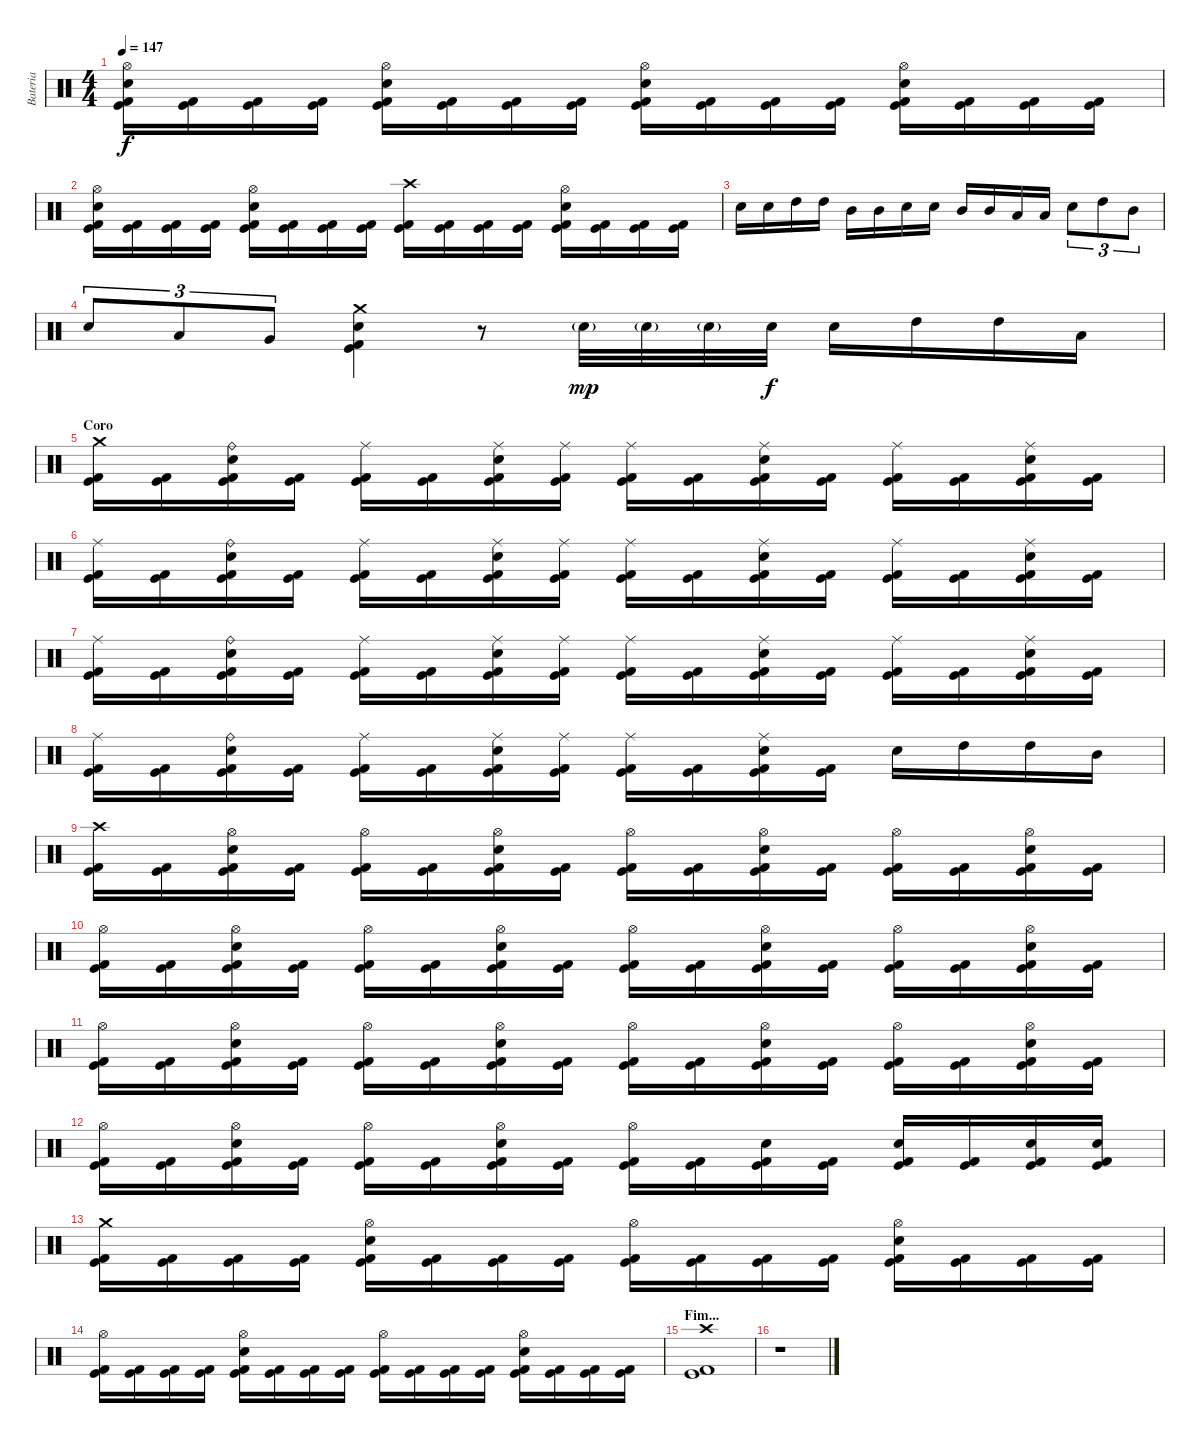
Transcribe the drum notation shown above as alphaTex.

\track ("Bateria" "Bateria") {instrument percussion}
\staff {score}
\articulation defaults
\ts (4 4)
\tempo 147
\clef neutral
\ks c
("Hi-Hat (open)" "Electric Snare (hit)" "Kick (hit)" "Kick (hit) 2").16{dy f} ("Kick (hit)" "Kick (hit) 2").16 ("Kick (hit)" "Kick (hit) 2").16 ("Kick (hit)" "Kick (hit) 2").16 ("Hi-Hat (open)" "Electric Snare (hit)" "Kick (hit)" "Kick (hit) 2").16 ("Kick (hit)" "Kick (hit) 2").16 ("Kick (hit)" "Kick (hit) 2").16 ("Kick (hit)" "Kick (hit) 2").16 ("Hi-Hat (open)" "Electric Snare (hit)" "Kick (hit)" "Kick (hit) 2").16 ("Kick (hit)" "Kick (hit) 2").16 ("Kick (hit)" "Kick (hit) 2").16 ("Kick (hit)" "Kick (hit) 2").16 ("Hi-Hat (open)" "Electric Snare (hit)" "Kick (hit)" "Kick (hit) 2").16 ("Kick (hit)" "Kick (hit) 2").16 ("Kick (hit)" "Kick (hit) 2").16 ("Kick (hit)" "Kick (hit) 2").16 |
("Hi-Hat (open)" "Electric Snare (hit)" "Kick (hit)" "Kick (hit) 2").16 ("Kick (hit)" "Kick (hit) 2").16 ("Kick (hit)" "Kick (hit) 2").16 ("Kick (hit)" "Kick (hit) 2").16 ("Hi-Hat (open)" "Electric Snare (hit)" "Kick (hit)" "Kick (hit) 2").16 ("Kick (hit)" "Kick (hit) 2").16 ("Kick (hit)" "Kick (hit) 2").16 ("Kick (hit)" "Kick (hit) 2").16 ("Crash high (hit)" "Kick (hit)" "Kick (hit) 2").16 ("Kick (hit)" "Kick (hit) 2").16 ("Kick (hit)" "Kick (hit) 2").16 ("Kick (hit)" "Kick (hit) 2").16 ("Hi-Hat (open)" "Electric Snare (hit)" "Kick (hit)" "Kick (hit) 2").16 ("Kick (hit)" "Kick (hit) 2").16 ("Kick (hit)" "Kick (hit) 2").16 ("Kick (hit)" "Kick (hit) 2").16 |
"Electric Snare (hit)".16 "Electric Snare (hit)".16 "High Tom (hit)".16 "High Tom (hit)".16 "Mid Tom (hit)".16 "Mid Tom (hit)".16 "Electric Snare (hit)".16 "Electric Snare (hit)".16 "Mid Tom (hit)".16 "Mid Tom (hit)".16 "Low Tom (hit)".16 "Low Tom (hit)".16 "Electric Snare (hit)".8{tu (3 2)} "High Tom (hit)".8{tu (3 2)} "Mid Tom (hit)".8{tu (3 2)} |
"Electric Snare (hit)".8{tu (3 2)} "Low Tom (hit)".8{tu (3 2)} "Very Low Tom (hit)".8{tu (3 2)} ("Crash medium (hit)" "Electric Snare (hit)" "Kick (hit)" "Kick (hit) 2").4 r.8 "Electric Snare (hit)"{g}.32{dy mp} "Electric Snare (hit)"{g}.32 "Electric Snare (hit)"{g}.32 "Electric Snare (hit)".32{dy f} "Electric Snare (hit)".16 "High Tom (hit)".16 "High Tom (hit)".16 "Low Tom (hit)".16 |
\section ("" "Coro")
("Crash medium (hit)" "Kick (hit)" "Kick (hit) 2").16 ("Kick (hit)" "Kick (hit) 2").16 ("Ride (bell)" "Electric Snare (hit)" "Kick (hit)" "Kick (hit) 2").16 ("Kick (hit)" "Kick (hit) 2").16 ("Ride (middle)" "Kick (hit)" "Kick (hit) 2").16 ("Kick (hit)" "Kick (hit) 2").16 ("Ride (middle)" "Electric Snare (hit)" "Kick (hit)" "Kick (hit) 2").16 ("Ride (middle)" "Kick (hit)" "Kick (hit) 2").16 ("Ride (middle)" "Kick (hit)" "Kick (hit) 2").16 ("Kick (hit)" "Kick (hit) 2").16 ("Ride (middle)" "Electric Snare (hit)" "Kick (hit)" "Kick (hit) 2").16 ("Kick (hit)" "Kick (hit) 2").16 ("Ride (middle)" "Kick (hit)" "Kick (hit) 2").16 ("Kick (hit)" "Kick (hit) 2").16 ("Ride (middle)" "Electric Snare (hit)" "Kick (hit)" "Kick (hit) 2").16 ("Kick (hit)" "Kick (hit) 2").16 |
("Ride (middle)" "Kick (hit)" "Kick (hit) 2").16 ("Kick (hit)" "Kick (hit) 2").16 ("Ride (bell)" "Electric Snare (hit)" "Kick (hit)" "Kick (hit) 2").16 ("Kick (hit)" "Kick (hit) 2").16 ("Ride (middle)" "Kick (hit)" "Kick (hit) 2").16 ("Kick (hit)" "Kick (hit) 2").16 ("Ride (middle)" "Electric Snare (hit)" "Kick (hit)" "Kick (hit) 2").16 ("Ride (middle)" "Kick (hit)" "Kick (hit) 2").16 ("Ride (middle)" "Kick (hit)" "Kick (hit) 2").16 ("Kick (hit)" "Kick (hit) 2").16 ("Ride (middle)" "Electric Snare (hit)" "Kick (hit)" "Kick (hit) 2").16 ("Kick (hit)" "Kick (hit) 2").16 ("Ride (middle)" "Kick (hit)" "Kick (hit) 2").16 ("Kick (hit)" "Kick (hit) 2").16 ("Ride (middle)" "Electric Snare (hit)" "Kick (hit)" "Kick (hit) 2").16 ("Kick (hit)" "Kick (hit) 2").16 |
("Ride (middle)" "Kick (hit)" "Kick (hit) 2").16 ("Kick (hit)" "Kick (hit) 2").16 ("Ride (bell)" "Electric Snare (hit)" "Kick (hit)" "Kick (hit) 2").16 ("Kick (hit)" "Kick (hit) 2").16 ("Ride (middle)" "Kick (hit)" "Kick (hit) 2").16 ("Kick (hit)" "Kick (hit) 2").16 ("Ride (middle)" "Electric Snare (hit)" "Kick (hit)" "Kick (hit) 2").16 ("Ride (middle)" "Kick (hit)" "Kick (hit) 2").16 ("Ride (middle)" "Kick (hit)" "Kick (hit) 2").16 ("Kick (hit)" "Kick (hit) 2").16 ("Ride (middle)" "Electric Snare (hit)" "Kick (hit)" "Kick (hit) 2").16 ("Kick (hit)" "Kick (hit) 2").16 ("Ride (middle)" "Kick (hit)" "Kick (hit) 2").16 ("Kick (hit)" "Kick (hit) 2").16 ("Ride (middle)" "Electric Snare (hit)" "Kick (hit)" "Kick (hit) 2").16 ("Kick (hit)" "Kick (hit) 2").16 |
("Ride (middle)" "Kick (hit)" "Kick (hit) 2").16 ("Kick (hit)" "Kick (hit) 2").16 ("Ride (bell)" "Electric Snare (hit)" "Kick (hit)" "Kick (hit) 2").16 ("Kick (hit)" "Kick (hit) 2").16 ("Ride (middle)" "Kick (hit)" "Kick (hit) 2").16 ("Kick (hit)" "Kick (hit) 2").16 ("Ride (middle)" "Electric Snare (hit)" "Kick (hit)" "Kick (hit) 2").16 ("Ride (middle)" "Kick (hit)" "Kick (hit) 2").16 ("Ride (middle)" "Kick (hit)" "Kick (hit) 2").16 ("Kick (hit)" "Kick (hit) 2").16 ("Ride (middle)" "Electric Snare (hit)" "Kick (hit)" "Kick (hit) 2").16 ("Kick (hit)" "Kick (hit) 2").16 "Electric Snare (hit)".16 "High Tom (hit)".16 "High Tom (hit)".16 "Mid Tom (hit)".16 |
("Crash high (hit)" "Kick (hit)" "Kick (hit) 2").16 ("Kick (hit)" "Kick (hit) 2").16 ("Hi-Hat (open)" "Electric Snare (hit)" "Kick (hit)" "Kick (hit) 2").16 ("Kick (hit)" "Kick (hit) 2").16 ("Hi-Hat (open)" "Kick (hit)" "Kick (hit) 2").16 ("Kick (hit)" "Kick (hit) 2").16 ("Hi-Hat (open)" "Electric Snare (hit)" "Kick (hit)" "Kick (hit) 2").16 ("Kick (hit)" "Kick (hit) 2").16 ("Hi-Hat (open)" "Kick (hit)" "Kick (hit) 2").16 ("Kick (hit)" "Kick (hit) 2").16 ("Hi-Hat (open)" "Electric Snare (hit)" "Kick (hit)" "Kick (hit) 2").16 ("Kick (hit)" "Kick (hit) 2").16 ("Hi-Hat (open)" "Kick (hit)" "Kick (hit) 2").16 ("Kick (hit)" "Kick (hit) 2").16 ("Hi-Hat (open)" "Electric Snare (hit)" "Kick (hit)" "Kick (hit) 2").16 ("Kick (hit)" "Kick (hit) 2").16 |
("Hi-Hat (open)" "Kick (hit)" "Kick (hit) 2").16 ("Kick (hit)" "Kick (hit) 2").16 ("Hi-Hat (open)" "Electric Snare (hit)" "Kick (hit)" "Kick (hit) 2").16 ("Kick (hit)" "Kick (hit) 2").16 ("Hi-Hat (open)" "Kick (hit)" "Kick (hit) 2").16 ("Kick (hit)" "Kick (hit) 2").16 ("Hi-Hat (open)" "Electric Snare (hit)" "Kick (hit)" "Kick (hit) 2").16 ("Kick (hit)" "Kick (hit) 2").16 ("Hi-Hat (open)" "Kick (hit)" "Kick (hit) 2").16 ("Kick (hit)" "Kick (hit) 2").16 ("Hi-Hat (open)" "Electric Snare (hit)" "Kick (hit)" "Kick (hit) 2").16 ("Kick (hit)" "Kick (hit) 2").16 ("Hi-Hat (open)" "Kick (hit)" "Kick (hit) 2").16 ("Kick (hit)" "Kick (hit) 2").16 ("Hi-Hat (open)" "Electric Snare (hit)" "Kick (hit)" "Kick (hit) 2").16 ("Kick (hit)" "Kick (hit) 2").16 |
("Hi-Hat (open)" "Kick (hit)" "Kick (hit) 2").16 ("Kick (hit)" "Kick (hit) 2").16 ("Hi-Hat (open)" "Electric Snare (hit)" "Kick (hit)" "Kick (hit) 2").16 ("Kick (hit)" "Kick (hit) 2").16 ("Hi-Hat (open)" "Kick (hit)" "Kick (hit) 2").16 ("Kick (hit)" "Kick (hit) 2").16 ("Hi-Hat (open)" "Electric Snare (hit)" "Kick (hit)" "Kick (hit) 2").16 ("Kick (hit)" "Kick (hit) 2").16 ("Hi-Hat (open)" "Kick (hit)" "Kick (hit) 2").16 ("Kick (hit)" "Kick (hit) 2").16 ("Hi-Hat (open)" "Electric Snare (hit)" "Kick (hit)" "Kick (hit) 2").16 ("Kick (hit)" "Kick (hit) 2").16 ("Hi-Hat (open)" "Kick (hit)" "Kick (hit) 2").16 ("Kick (hit)" "Kick (hit) 2").16 ("Hi-Hat (open)" "Electric Snare (hit)" "Kick (hit)" "Kick (hit) 2").16 ("Kick (hit)" "Kick (hit) 2").16 |
("Hi-Hat (open)" "Kick (hit)" "Kick (hit) 2").16 ("Kick (hit)" "Kick (hit) 2").16 ("Hi-Hat (open)" "Electric Snare (hit)" "Kick (hit)" "Kick (hit) 2").16 ("Kick (hit)" "Kick (hit) 2").16 ("Hi-Hat (open)" "Kick (hit)" "Kick (hit) 2").16 ("Kick (hit)" "Kick (hit) 2").16 ("Hi-Hat (open)" "Electric Snare (hit)" "Kick (hit)" "Kick (hit) 2").16 ("Kick (hit)" "Kick (hit) 2").16 ("Hi-Hat (open)" "Kick (hit)" "Kick (hit) 2").16 ("Kick (hit)" "Kick (hit) 2").16 ("Electric Snare (hit)" "Kick (hit)" "Kick (hit) 2").16 ("Kick (hit)" "Kick (hit) 2").16 ("Electric Snare (hit)" "Kick (hit)" "Kick (hit) 2").16 ("Kick (hit)" "Kick (hit) 2").16 ("Electric Snare (hit)" "Kick (hit)" "Kick (hit) 2").16 ("Electric Snare (hit)" "Kick (hit)" "Kick (hit) 2").16 |
("Crash medium (hit)" "Kick (hit)" "Kick (hit) 2").16 ("Kick (hit)" "Kick (hit) 2").16 ("Kick (hit)" "Kick (hit) 2").16 ("Kick (hit)" "Kick (hit) 2").16 ("Hi-Hat (open)" "Electric Snare (hit)" "Kick (hit)" "Kick (hit) 2").16 ("Kick (hit)" "Kick (hit) 2").16 ("Kick (hit)" "Kick (hit) 2").16 ("Kick (hit)" "Kick (hit) 2").16 ("Hi-Hat (open)" "Kick (hit)" "Kick (hit) 2").16 ("Kick (hit)" "Kick (hit) 2").16 ("Kick (hit)" "Kick (hit) 2").16 ("Kick (hit)" "Kick (hit) 2").16 ("Hi-Hat (open)" "Electric Snare (hit)" "Kick (hit)" "Kick (hit) 2").16 ("Kick (hit)" "Kick (hit) 2").16 ("Kick (hit)" "Kick (hit) 2").16 ("Kick (hit)" "Kick (hit) 2").16 |
("Hi-Hat (open)" "Kick (hit)" "Kick (hit) 2").16 ("Kick (hit)" "Kick (hit) 2").16 ("Kick (hit)" "Kick (hit) 2").16 ("Kick (hit)" "Kick (hit) 2").16 ("Hi-Hat (open)" "Electric Snare (hit)" "Kick (hit)" "Kick (hit) 2").16 ("Kick (hit)" "Kick (hit) 2").16 ("Kick (hit)" "Kick (hit) 2").16 ("Kick (hit)" "Kick (hit) 2").16 ("Hi-Hat (open)" "Kick (hit)" "Kick (hit) 2").16 ("Kick (hit)" "Kick (hit) 2").16 ("Kick (hit)" "Kick (hit) 2").16 ("Kick (hit)" "Kick (hit) 2").16 ("Hi-Hat (open)" "Electric Snare (hit)" "Kick (hit)" "Kick (hit) 2").16 ("Kick (hit)" "Kick (hit) 2").16 ("Kick (hit)" "Kick (hit) 2").16 ("Kick (hit)" "Kick (hit) 2").16 |
\section ("" "Fim...")
("Crash high (hit)" "Kick (hit)" "Kick (hit) 2").1 |
r.1
